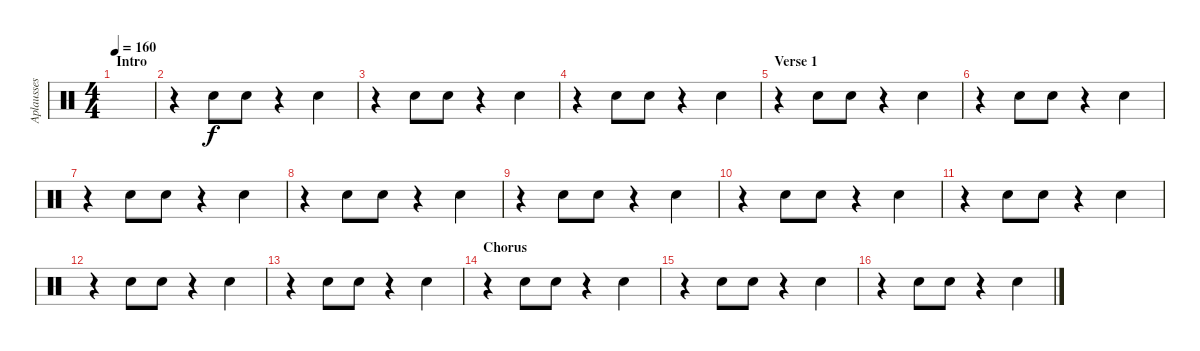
\track ("Aplausses" "Aplausses") {instrument percussion}
\staff {score}
\articulation defaults
\ts (4 4)
\section ("" "Intro")
\tempo 160
\clef neutral
\ks c
|
r.4 "Hand Clap (hit)".8 "Hand Clap (hit)".8 r.4 "Hand Clap (hit)".4 |
r.4 "Hand Clap (hit)".8 "Hand Clap (hit)".8 r.4 "Hand Clap (hit)".4 |
r.4 "Hand Clap (hit)".8 "Hand Clap (hit)".8 r.4 "Hand Clap (hit)".4 |
\section ("" "Verse 1")
r.4 "Hand Clap (hit)".8 "Hand Clap (hit)".8 r.4 "Hand Clap (hit)".4 |
r.4 "Hand Clap (hit)".8 "Hand Clap (hit)".8 r.4 "Hand Clap (hit)".4 |
r.4 "Hand Clap (hit)".8 "Hand Clap (hit)".8 r.4 "Hand Clap (hit)".4 |
r.4 "Hand Clap (hit)".8 "Hand Clap (hit)".8 r.4 "Hand Clap (hit)".4 |
r.4 "Hand Clap (hit)".8 "Hand Clap (hit)".8 r.4 "Hand Clap (hit)".4 |
r.4 "Hand Clap (hit)".8 "Hand Clap (hit)".8 r.4 "Hand Clap (hit)".4 |
r.4 "Hand Clap (hit)".8 "Hand Clap (hit)".8 r.4 "Hand Clap (hit)".4 |
r.4 "Hand Clap (hit)".8 "Hand Clap (hit)".8 r.4 "Hand Clap (hit)".4 |
r.4 "Hand Clap (hit)".8 "Hand Clap (hit)".8 r.4 "Hand Clap (hit)".4 |
\section ("" "Chorus")
r.4 "Hand Clap (hit)".8 "Hand Clap (hit)".8 r.4 "Hand Clap (hit)".4 |
r.4 "Hand Clap (hit)".8 "Hand Clap (hit)".8 r.4 "Hand Clap (hit)".4 |
r.4 "Hand Clap (hit)".8 "Hand Clap (hit)".8 r.4 "Hand Clap (hit)".4
